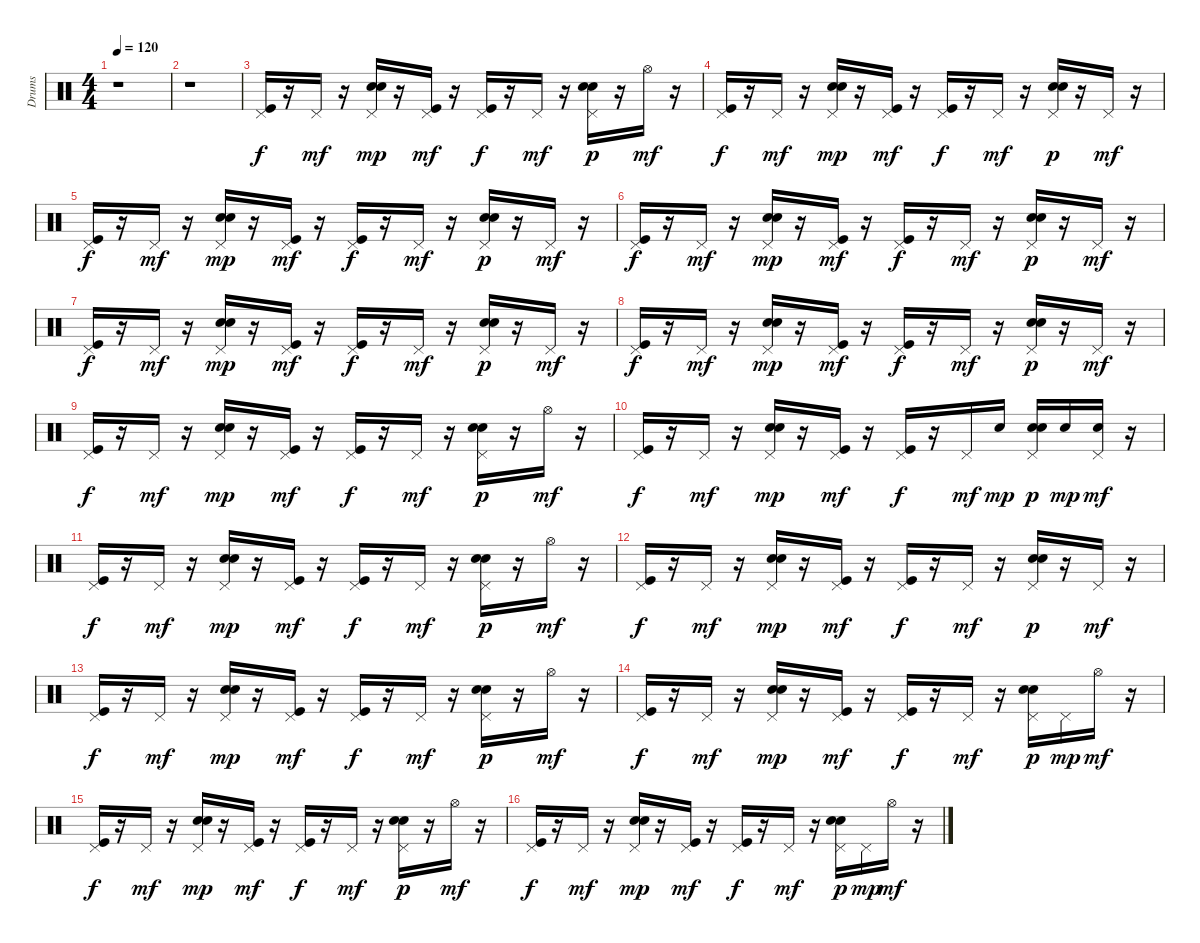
\track ("Drums   " "Drums   ") {instrument percussion}
\staff {score}
\articulation defaults
\ts (4 4)
\tempo 120
\clef neutral
\ks c
r.1{dy f} |
r.1 |
("Kick (hit)" "Pedal Hi-Hat (hit)").16 r.16 "Pedal Hi-Hat (hit)".16{dy mf} r.16 ("Electric Snare (hit)" "Pedal Hi-Hat (hit)" "Hand Clap (hit)").16{dy mp} r.16 ("Kick (hit)" "Pedal Hi-Hat (hit)").16{dy mf} r.16 ("Kick (hit)" "Pedal Hi-Hat (hit)").16{dy f} r.16 "Pedal Hi-Hat (hit)".16{dy mf} r.16 ("Electric Snare (hit)" "Pedal Hi-Hat (hit)" "Hand Clap (hit)").16{dy p} r.16 "Hi-Hat (open)".16{dy mf} r.16 |
("Kick (hit)" "Pedal Hi-Hat (hit)").16{dy f} r.16 "Pedal Hi-Hat (hit)".16{dy mf} r.16 ("Electric Snare (hit)" "Pedal Hi-Hat (hit)" "Hand Clap (hit)").16{dy mp} r.16 ("Kick (hit)" "Pedal Hi-Hat (hit)").16{dy mf} r.16 ("Kick (hit)" "Pedal Hi-Hat (hit)").16{dy f} r.16 "Pedal Hi-Hat (hit)".16{dy mf} r.16 ("Electric Snare (hit)" "Pedal Hi-Hat (hit)" "Hand Clap (hit)").16{dy p} r.16 "Pedal Hi-Hat (hit)".16{dy mf} r.16 |
("Kick (hit)" "Pedal Hi-Hat (hit)").16{dy f} r.16 "Pedal Hi-Hat (hit)".16{dy mf} r.16 ("Electric Snare (hit)" "Pedal Hi-Hat (hit)" "Hand Clap (hit)").16{dy mp} r.16 ("Kick (hit)" "Pedal Hi-Hat (hit)").16{dy mf} r.16 ("Kick (hit)" "Pedal Hi-Hat (hit)").16{dy f} r.16 "Pedal Hi-Hat (hit)".16{dy mf} r.16 ("Electric Snare (hit)" "Pedal Hi-Hat (hit)" "Hand Clap (hit)").16{dy p} r.16 "Pedal Hi-Hat (hit)".16{dy mf} r.16 |
("Kick (hit)" "Pedal Hi-Hat (hit)").16{dy f} r.16 "Pedal Hi-Hat (hit)".16{dy mf} r.16 ("Electric Snare (hit)" "Pedal Hi-Hat (hit)" "Hand Clap (hit)").16{dy mp} r.16 ("Kick (hit)" "Pedal Hi-Hat (hit)").16{dy mf} r.16 ("Kick (hit)" "Pedal Hi-Hat (hit)").16{dy f} r.16 "Pedal Hi-Hat (hit)".16{dy mf} r.16 ("Electric Snare (hit)" "Pedal Hi-Hat (hit)" "Hand Clap (hit)").16{dy p} r.16 "Pedal Hi-Hat (hit)".16{dy mf} r.16 |
("Kick (hit)" "Pedal Hi-Hat (hit)").16{dy f} r.16 "Pedal Hi-Hat (hit)".16{dy mf} r.16 ("Electric Snare (hit)" "Pedal Hi-Hat (hit)" "Hand Clap (hit)").16{dy mp} r.16 ("Kick (hit)" "Pedal Hi-Hat (hit)").16{dy mf} r.16 ("Kick (hit)" "Pedal Hi-Hat (hit)").16{dy f} r.16 "Pedal Hi-Hat (hit)".16{dy mf} r.16 ("Electric Snare (hit)" "Pedal Hi-Hat (hit)" "Hand Clap (hit)").16{dy p} r.16 "Pedal Hi-Hat (hit)".16{dy mf} r.16 |
("Kick (hit)" "Pedal Hi-Hat (hit)").16{dy f} r.16 "Pedal Hi-Hat (hit)".16{dy mf} r.16 ("Electric Snare (hit)" "Pedal Hi-Hat (hit)" "Hand Clap (hit)").16{dy mp} r.16 ("Kick (hit)" "Pedal Hi-Hat (hit)").16{dy mf} r.16 ("Kick (hit)" "Pedal Hi-Hat (hit)").16{dy f} r.16 "Pedal Hi-Hat (hit)".16{dy mf} r.16 ("Electric Snare (hit)" "Pedal Hi-Hat (hit)" "Hand Clap (hit)").16{dy p} r.16 "Pedal Hi-Hat (hit)".16{dy mf} r.16 |
("Kick (hit)" "Pedal Hi-Hat (hit)").16{dy f} r.16 "Pedal Hi-Hat (hit)".16{dy mf} r.16 ("Electric Snare (hit)" "Pedal Hi-Hat (hit)" "Hand Clap (hit)").16{dy mp} r.16 ("Kick (hit)" "Pedal Hi-Hat (hit)").16{dy mf} r.16 ("Kick (hit)" "Pedal Hi-Hat (hit)").16{dy f} r.16 "Pedal Hi-Hat (hit)".16{dy mf} r.16 ("Electric Snare (hit)" "Pedal Hi-Hat (hit)" "Hand Clap (hit)").16{dy p} r.16 "Hi-Hat (open)".16{dy mf} r.16 |
("Kick (hit)" "Pedal Hi-Hat (hit)").16{dy f} r.16 "Pedal Hi-Hat (hit)".16{dy mf} r.16 ("Electric Snare (hit)" "Pedal Hi-Hat (hit)" "Hand Clap (hit)").16{dy mp} r.16 ("Kick (hit)" "Pedal Hi-Hat (hit)").16{dy mf} r.16 ("Kick (hit)" "Pedal Hi-Hat (hit)").16{dy f} r.16 "Pedal Hi-Hat (hit)".16{dy mf} "Electric Snare (hit)".16{dy mp} ("Electric Snare (hit)" "Pedal Hi-Hat (hit)" "Hand Clap (hit)").16{dy p} "Electric Snare (hit)".16{dy mp} ("Electric Snare (hit)" "Pedal Hi-Hat (hit)").16{dy mf} r.16 |
("Kick (hit)" "Pedal Hi-Hat (hit)").16{dy f} r.16 "Pedal Hi-Hat (hit)".16{dy mf} r.16 ("Electric Snare (hit)" "Pedal Hi-Hat (hit)" "Hand Clap (hit)").16{dy mp} r.16 ("Kick (hit)" "Pedal Hi-Hat (hit)").16{dy mf} r.16 ("Kick (hit)" "Pedal Hi-Hat (hit)").16{dy f} r.16 "Pedal Hi-Hat (hit)".16{dy mf} r.16 ("Electric Snare (hit)" "Pedal Hi-Hat (hit)" "Hand Clap (hit)").16{dy p} r.16 "Hi-Hat (open)".16{dy mf} r.16 |
("Kick (hit)" "Pedal Hi-Hat (hit)").16{dy f} r.16 "Pedal Hi-Hat (hit)".16{dy mf} r.16 ("Electric Snare (hit)" "Pedal Hi-Hat (hit)" "Hand Clap (hit)").16{dy mp} r.16 ("Kick (hit)" "Pedal Hi-Hat (hit)").16{dy mf} r.16 ("Kick (hit)" "Pedal Hi-Hat (hit)").16{dy f} r.16 "Pedal Hi-Hat (hit)".16{dy mf} r.16 ("Electric Snare (hit)" "Pedal Hi-Hat (hit)" "Hand Clap (hit)").16{dy p} r.16 "Pedal Hi-Hat (hit)".16{dy mf} r.16 |
("Kick (hit)" "Pedal Hi-Hat (hit)").16{dy f} r.16 "Pedal Hi-Hat (hit)".16{dy mf} r.16 ("Electric Snare (hit)" "Pedal Hi-Hat (hit)" "Hand Clap (hit)").16{dy mp} r.16 ("Kick (hit)" "Pedal Hi-Hat (hit)").16{dy mf} r.16 ("Kick (hit)" "Pedal Hi-Hat (hit)").16{dy f} r.16 "Pedal Hi-Hat (hit)".16{dy mf} r.16 ("Electric Snare (hit)" "Pedal Hi-Hat (hit)" "Hand Clap (hit)").16{dy p} r.16 "Hi-Hat (open)".16{dy mf} r.16 |
("Kick (hit)" "Pedal Hi-Hat (hit)").16{dy f} r.16 "Pedal Hi-Hat (hit)".16{dy mf} r.16 ("Electric Snare (hit)" "Pedal Hi-Hat (hit)" "Hand Clap (hit)").16{dy mp} r.16 ("Kick (hit)" "Pedal Hi-Hat (hit)").16{dy mf} r.16 ("Kick (hit)" "Pedal Hi-Hat (hit)").16{dy f} r.16 "Pedal Hi-Hat (hit)".16{dy mf} r.16 ("Electric Snare (hit)" "Pedal Hi-Hat (hit)" "Hand Clap (hit)").16{dy p} "Pedal Hi-Hat (hit)".16{dy mp} "Hi-Hat (open)".16{dy mf} r.16 |
("Kick (hit)" "Pedal Hi-Hat (hit)").16{dy f} r.16 "Pedal Hi-Hat (hit)".16{dy mf} r.16 ("Electric Snare (hit)" "Pedal Hi-Hat (hit)" "Hand Clap (hit)").16{dy mp} r.16 ("Kick (hit)" "Pedal Hi-Hat (hit)").16{dy mf} r.16 ("Kick (hit)" "Pedal Hi-Hat (hit)").16{dy f} r.16 "Pedal Hi-Hat (hit)".16{dy mf} r.16 ("Electric Snare (hit)" "Pedal Hi-Hat (hit)" "Hand Clap (hit)").16{dy p} r.16 "Hi-Hat (open)".16{dy mf} r.16 |
("Kick (hit)" "Pedal Hi-Hat (hit)").16{dy f} r.16 "Pedal Hi-Hat (hit)".16{dy mf} r.16 ("Electric Snare (hit)" "Pedal Hi-Hat (hit)" "Hand Clap (hit)").16{dy mp} r.16 ("Kick (hit)" "Pedal Hi-Hat (hit)").16{dy mf} r.16 ("Kick (hit)" "Pedal Hi-Hat (hit)").16{dy f} r.16 "Pedal Hi-Hat (hit)".16{dy mf} r.16 ("Electric Snare (hit)" "Pedal Hi-Hat (hit)" "Hand Clap (hit)").16{dy p} "Pedal Hi-Hat (hit)".16{dy mp} "Hi-Hat (open)".16{dy mf} r.16
